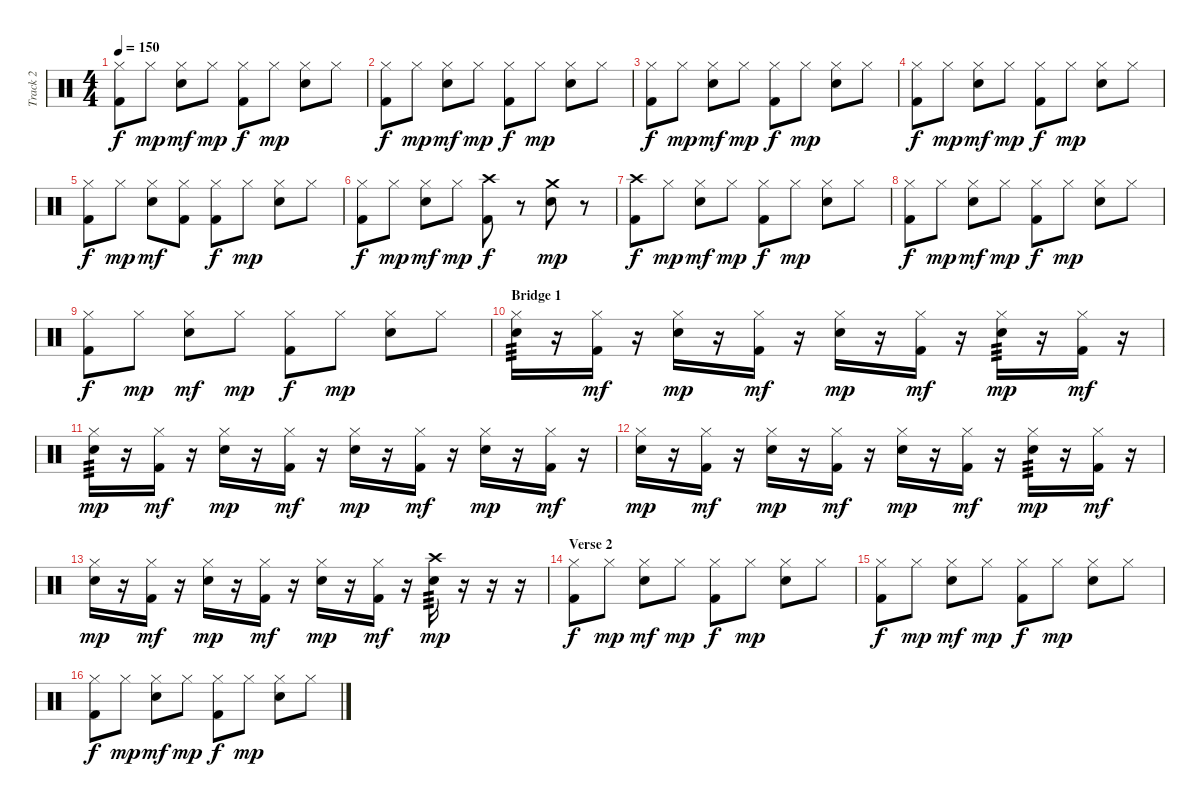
\track ("Track 2" "Track 2") {instrument percussion}
\staff {score}
\articulation defaults
\ts (4 4)
\tempo 150
\clef neutral
\ks c
("Hi-Hat (closed)" "Kick (hit) 2").8{dy f} "Hi-Hat (closed)".8{dy mp} ("Hi-Hat (closed)" "Electric Snare (hit)").8{dy mf} "Hi-Hat (closed)".8{dy mp} ("Hi-Hat (closed)" "Kick (hit) 2").8{dy f} "Hi-Hat (closed)".8{dy mp} ("Hi-Hat (closed)" "Electric Snare (hit)").8 "Hi-Hat (closed)".8 |
("Hi-Hat (closed)" "Kick (hit) 2").8{dy f} "Hi-Hat (closed)".8{dy mp} ("Hi-Hat (closed)" "Electric Snare (hit)").8{dy mf} "Hi-Hat (closed)".8{dy mp} ("Hi-Hat (closed)" "Kick (hit) 2").8{dy f} "Hi-Hat (closed)".8{dy mp} ("Hi-Hat (closed)" "Electric Snare (hit)").8 "Hi-Hat (closed)".8 |
("Hi-Hat (closed)" "Kick (hit) 2").8{dy f} "Hi-Hat (closed)".8{dy mp} ("Hi-Hat (closed)" "Electric Snare (hit)").8{dy mf} "Hi-Hat (closed)".8{dy mp} ("Hi-Hat (closed)" "Kick (hit) 2").8{dy f} "Hi-Hat (closed)".8{dy mp} ("Hi-Hat (closed)" "Electric Snare (hit)").8 "Hi-Hat (closed)".8 |
("Hi-Hat (closed)" "Kick (hit) 2").8{dy f} "Hi-Hat (closed)".8{dy mp} ("Hi-Hat (closed)" "Electric Snare (hit)").8{dy mf} "Hi-Hat (closed)".8{dy mp} ("Hi-Hat (closed)" "Kick (hit) 2").8{dy f} "Hi-Hat (closed)".8{dy mp} ("Hi-Hat (closed)" "Electric Snare (hit)").8 "Hi-Hat (closed)".8 |
("Hi-Hat (closed)" "Kick (hit) 2").8{dy f} "Hi-Hat (closed)".8{dy mp} ("Hi-Hat (closed)" "Electric Snare (hit)").8{dy mf} ("Hi-Hat (closed)" "Kick (hit) 2").8 ("Hi-Hat (closed)" "Kick (hit) 2").8{dy f} "Hi-Hat (closed)".8{dy mp} ("Hi-Hat (closed)" "Electric Snare (hit)").8 "Hi-Hat (closed)".8 |
("Hi-Hat (closed)" "Kick (hit) 2").8{dy f} "Hi-Hat (closed)".8{dy mp} ("Hi-Hat (closed)" "Electric Snare (hit)").8{dy mf} "Hi-Hat (closed)".8{dy mp} ("Crash high (hit)" "Kick (hit) 2").8{dy f} r.8 ("Crash medium (hit)" "Electric Snare (hit)").8{dy mp} r.8 |
("Crash high (hit)" "Kick (hit) 2").8{dy f} "Hi-Hat (closed)".8{dy mp} ("Hi-Hat (closed)" "Electric Snare (hit)").8{dy mf} "Hi-Hat (closed)".8{dy mp} ("Hi-Hat (closed)" "Kick (hit) 2").8{dy f} "Hi-Hat (closed)".8{dy mp} ("Hi-Hat (closed)" "Electric Snare (hit)").8 "Hi-Hat (closed)".8 |
("Hi-Hat (closed)" "Kick (hit) 2").8{dy f} "Hi-Hat (closed)".8{dy mp} ("Hi-Hat (closed)" "Electric Snare (hit)").8{dy mf} "Hi-Hat (closed)".8{dy mp} ("Hi-Hat (closed)" "Kick (hit) 2").8{dy f} "Hi-Hat (closed)".8{dy mp} ("Hi-Hat (closed)" "Electric Snare (hit)").8 "Hi-Hat (closed)".8 |
("Hi-Hat (closed)" "Kick (hit) 2").8{dy f} "Hi-Hat (closed)".8{dy mp} ("Hi-Hat (closed)" "Electric Snare (hit)").8{dy mf} "Hi-Hat (closed)".8{dy mp} ("Hi-Hat (closed)" "Kick (hit) 2").8{dy f} "Hi-Hat (closed)".8{dy mp} ("Hi-Hat (closed)" "Electric Snare (hit)").8 "Hi-Hat (closed)".8 |
\section ("" "Bridge 1")
("Hi-Hat (closed)" "Electric Snare (hit)").16{tp 3} r.16 ("Hi-Hat (closed)" "Kick (hit) 2").16{dy mf} r.16 ("Hi-Hat (closed)" "Electric Snare (hit)").16{dy mp} r.16 ("Hi-Hat (closed)" "Kick (hit) 2").16{dy mf} r.16 ("Hi-Hat (closed)" "Electric Snare (hit)").16{dy mp} r.16 ("Hi-Hat (closed)" "Kick (hit) 2").16{dy mf} r.16 ("Hi-Hat (closed)" "Electric Snare (hit)").16{tp 3 dy mp} r.16 ("Hi-Hat (closed)" "Kick (hit) 2").16{dy mf} r.16 |
("Hi-Hat (closed)" "Electric Snare (hit)").16{tp 3 dy mp} r.16 ("Hi-Hat (closed)" "Kick (hit) 2").16{dy mf} r.16 ("Hi-Hat (closed)" "Electric Snare (hit)").16{dy mp} r.16 ("Hi-Hat (closed)" "Kick (hit) 2").16{dy mf} r.16 ("Hi-Hat (closed)" "Electric Snare (hit)").16{dy mp} r.16 ("Hi-Hat (closed)" "Kick (hit) 2").16{dy mf} r.16 ("Hi-Hat (closed)" "Electric Snare (hit)").16{dy mp} r.16 ("Hi-Hat (closed)" "Kick (hit) 2").16{dy mf} r.16 |
("Hi-Hat (closed)" "Electric Snare (hit)").16{dy mp} r.16 ("Hi-Hat (closed)" "Kick (hit) 2").16{dy mf} r.16 ("Hi-Hat (closed)" "Electric Snare (hit)").16{dy mp} r.16 ("Hi-Hat (closed)" "Kick (hit) 2").16{dy mf} r.16 ("Hi-Hat (closed)" "Electric Snare (hit)").16{dy mp} r.16 ("Hi-Hat (closed)" "Kick (hit) 2").16{dy mf} r.16 ("Hi-Hat (closed)" "Electric Snare (hit)").16{tp 3 dy mp} r.16 ("Hi-Hat (closed)" "Kick (hit) 2").16{dy mf} r.16 |
("Hi-Hat (closed)" "Electric Snare (hit)").16{dy mp} r.16 ("Hi-Hat (closed)" "Kick (hit) 2").16{dy mf} r.16 ("Hi-Hat (closed)" "Electric Snare (hit)").16{dy mp} r.16 ("Hi-Hat (closed)" "Kick (hit) 2").16{dy mf} r.16 ("Hi-Hat (closed)" "Electric Snare (hit)").16{dy mp} r.16 ("Hi-Hat (closed)" "Kick (hit) 2").16{dy mf} r.16 ("Crash high (hit)" "Electric Snare (hit)").16{tp 3 dy mp} r.16 r.16 r.16 |
\section ("" "Verse 2")
("Hi-Hat (closed)" "Kick (hit) 2").8{dy f} "Hi-Hat (closed)".8{dy mp} ("Hi-Hat (closed)" "Electric Snare (hit)").8{dy mf} "Hi-Hat (closed)".8{dy mp} ("Hi-Hat (closed)" "Kick (hit) 2").8{dy f} "Hi-Hat (closed)".8{dy mp} ("Hi-Hat (closed)" "Electric Snare (hit)").8 "Hi-Hat (closed)".8 |
("Hi-Hat (closed)" "Kick (hit) 2").8{dy f} "Hi-Hat (closed)".8{dy mp} ("Hi-Hat (closed)" "Electric Snare (hit)").8{dy mf} "Hi-Hat (closed)".8{dy mp} ("Hi-Hat (closed)" "Kick (hit) 2").8{dy f} "Hi-Hat (closed)".8{dy mp} ("Hi-Hat (closed)" "Electric Snare (hit)").8 "Hi-Hat (closed)".8 |
("Hi-Hat (closed)" "Kick (hit) 2").8{dy f} "Hi-Hat (closed)".8{dy mp} ("Hi-Hat (closed)" "Electric Snare (hit)").8{dy mf} "Hi-Hat (closed)".8{dy mp} ("Hi-Hat (closed)" "Kick (hit) 2").8{dy f} "Hi-Hat (closed)".8{dy mp} ("Hi-Hat (closed)" "Electric Snare (hit)").8 "Hi-Hat (closed)".8
